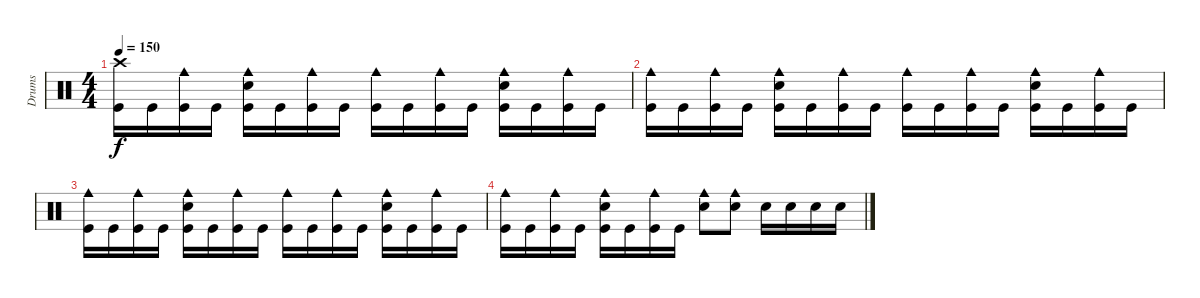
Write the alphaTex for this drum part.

\track ("Drums" "Drums") {instrument percussion}
\staff {score}
\articulation defaults
\ts (4 4)
\tempo 150
\clef neutral
\ks c
("Crash high (hit)" "Kick (hit)").16{dy f} "Kick (hit)".16 ("Cowbell medium (hit)" "Kick (hit)").16 "Kick (hit)".16 ("Cowbell medium (hit)" "Electric Snare (hit)" "Kick (hit)").16 "Kick (hit)".16 ("Cowbell medium (hit)" "Kick (hit)").16 "Kick (hit)".16 ("Cowbell medium (hit)" "Kick (hit)").16 "Kick (hit)".16 ("Cowbell medium (hit)" "Kick (hit)").16 "Kick (hit)".16 ("Cowbell medium (hit)" "Electric Snare (hit)" "Kick (hit)").16 "Kick (hit)".16 ("Cowbell medium (hit)" "Kick (hit)").16 "Kick (hit)".16 |
("Cowbell medium (hit)" "Kick (hit)").16 "Kick (hit)".16 ("Cowbell medium (hit)" "Kick (hit)").16 "Kick (hit)".16 ("Cowbell medium (hit)" "Electric Snare (hit)" "Kick (hit)").16 "Kick (hit)".16 ("Cowbell medium (hit)" "Kick (hit)").16 "Kick (hit)".16 ("Cowbell medium (hit)" "Kick (hit)").16 "Kick (hit)".16 ("Cowbell medium (hit)" "Kick (hit)").16 "Kick (hit)".16 ("Cowbell medium (hit)" "Electric Snare (hit)" "Kick (hit)").16 "Kick (hit)".16 ("Cowbell medium (hit)" "Kick (hit)").16 "Kick (hit)".16 |
("Cowbell medium (hit)" "Kick (hit)").16 "Kick (hit)".16 ("Cowbell medium (hit)" "Kick (hit)").16 "Kick (hit)".16 ("Cowbell medium (hit)" "Electric Snare (hit)" "Kick (hit)").16 "Kick (hit)".16 ("Cowbell medium (hit)" "Kick (hit)").16 "Kick (hit)".16 ("Cowbell medium (hit)" "Kick (hit)").16 "Kick (hit)".16 ("Cowbell medium (hit)" "Kick (hit)").16 "Kick (hit)".16 ("Cowbell medium (hit)" "Electric Snare (hit)" "Kick (hit)").16 "Kick (hit)".16 ("Cowbell medium (hit)" "Kick (hit)").16 "Kick (hit)".16 |
("Cowbell medium (hit)" "Kick (hit)").16 "Kick (hit)".16 ("Cowbell medium (hit)" "Kick (hit)").16 "Kick (hit)".16 ("Cowbell medium (hit)" "Electric Snare (hit)" "Kick (hit)").16 "Kick (hit)".16 ("Cowbell medium (hit)" "Kick (hit)").16 "Kick (hit)".16 ("Cowbell medium (hit)" "Electric Snare (hit)").8 ("Cowbell medium (hit)" "Electric Snare (hit)").8 "Electric Snare (hit)".16 "Electric Snare (hit)".16 "Electric Snare (hit)".16 "Electric Snare (hit)".16
